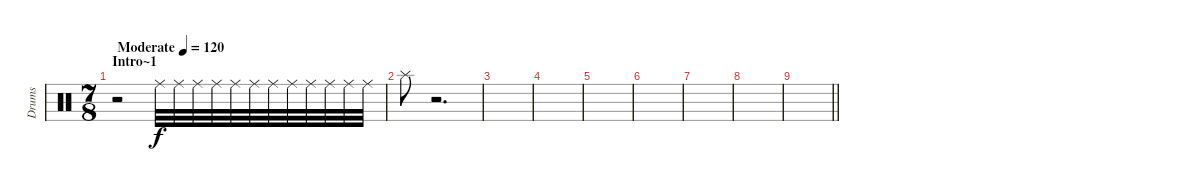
\track ("Drums" "Drums") {instrument percussion}
\staff {score}
\articulation defaults
\ts (7 8)
\section ("" "Intro~1")
\tempo (120 "Moderate")
\tempo 122
\tempo (120 "Moderate")
\clef neutral
\ks c
r.2{dy f volume 13} "Ride (middle)".32{volume 2} "Ride (middle)".32{volume 2} "Ride (middle)".32{volume 4} "Ride (middle)".32{volume 4} "Ride (middle)".32{volume 6} "Ride (middle)".32{volume 6} "Ride (middle)".32{volume 6} "Ride (middle)".32{volume 6} "Ride (middle)".32{volume 6} "Ride (middle)".32{volume 5} "Ride (middle)".32{volume 6} "Ride (middle)".32{volume 6} |
"Splash (hit)".8{volume 13} r.2{d} |
|
|
|
|
|
|
\barLineRight lightlight
